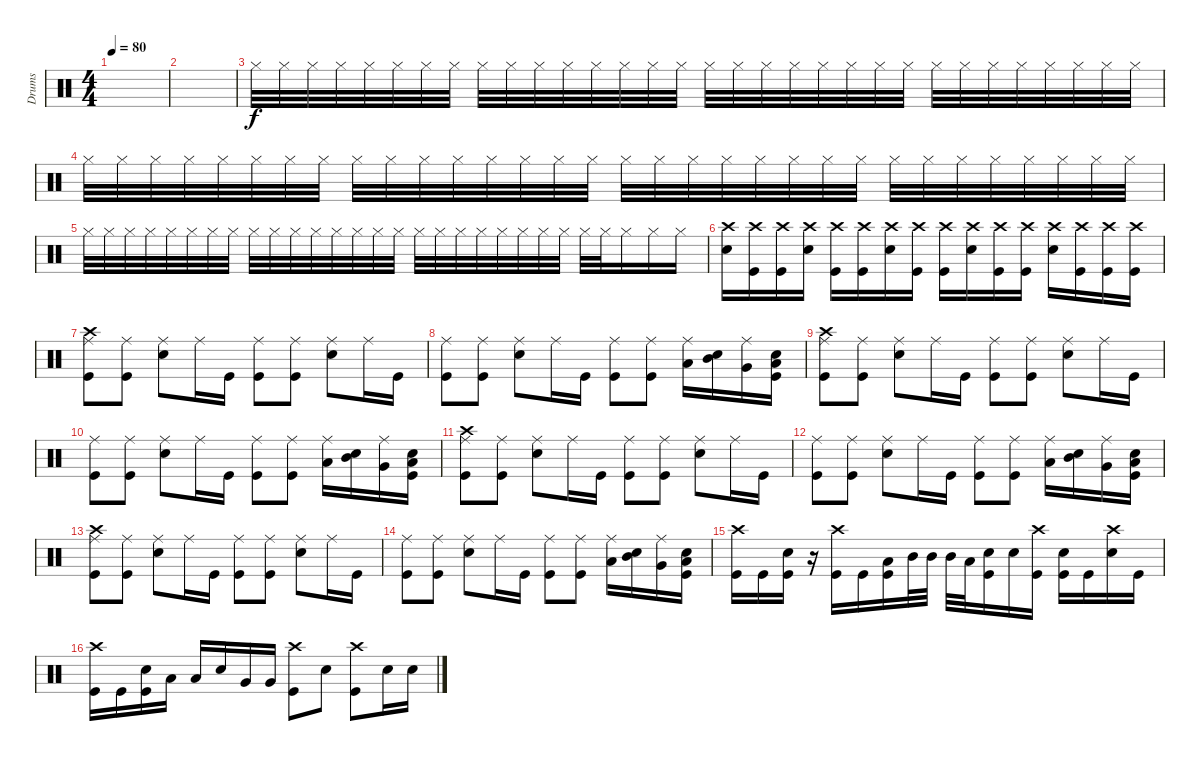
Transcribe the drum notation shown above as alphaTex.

\track ("Drums" "Drums") {instrument percussion}
\staff {score}
\articulation defaults
\ts (4 4)
\tempo 80
\clef neutral
\ks c
|
|
"Hi-Hat (closed)".32 "Hi-Hat (closed)".32 "Hi-Hat (closed)".32 "Hi-Hat (closed)".32 "Hi-Hat (closed)".32 "Hi-Hat (closed)".32 "Hi-Hat (closed)".32 "Hi-Hat (closed)".32 "Hi-Hat (closed)".32 "Hi-Hat (closed)".32 "Hi-Hat (closed)".32 "Hi-Hat (closed)".32 "Hi-Hat (closed)".32 "Hi-Hat (closed)".32 "Hi-Hat (closed)".32 "Hi-Hat (closed)".32 "Hi-Hat (closed)".32 "Hi-Hat (closed)".32 "Hi-Hat (closed)".32 "Hi-Hat (closed)".32 "Hi-Hat (closed)".32 "Hi-Hat (closed)".32 "Hi-Hat (closed)".32 "Hi-Hat (closed)".32 "Hi-Hat (closed)".32 "Hi-Hat (closed)".32 "Hi-Hat (closed)".32 "Hi-Hat (closed)".32 "Hi-Hat (closed)".32 "Hi-Hat (closed)".32 "Hi-Hat (closed)".32 "Hi-Hat (closed)".32 |
"Hi-Hat (closed)".32 "Hi-Hat (closed)".32 "Hi-Hat (closed)".32 "Hi-Hat (closed)".32 "Hi-Hat (closed)".32 "Hi-Hat (closed)".32 "Hi-Hat (closed)".32 "Hi-Hat (closed)".32 "Hi-Hat (closed)".32 "Hi-Hat (closed)".32 "Hi-Hat (closed)".32 "Hi-Hat (closed)".32 "Hi-Hat (closed)".32 "Hi-Hat (closed)".32 "Hi-Hat (closed)".32 "Hi-Hat (closed)".32 "Hi-Hat (closed)".32 "Hi-Hat (closed)".32 "Hi-Hat (closed)".32 "Hi-Hat (closed)".32 "Hi-Hat (closed)".32 "Hi-Hat (closed)".32 "Hi-Hat (closed)".32 "Hi-Hat (closed)".32 "Hi-Hat (closed)".32 "Hi-Hat (closed)".32 "Hi-Hat (closed)".32 "Hi-Hat (closed)".32 "Hi-Hat (closed)".32 "Hi-Hat (closed)".32 "Hi-Hat (closed)".32 "Hi-Hat (closed)".32 |
"Hi-Hat (closed)".32 "Hi-Hat (closed)".32 "Hi-Hat (closed)".32 "Hi-Hat (closed)".32 "Hi-Hat (closed)".32 "Hi-Hat (closed)".32 "Hi-Hat (closed)".32 "Hi-Hat (closed)".32 "Hi-Hat (closed)".32 "Hi-Hat (closed)".32 "Hi-Hat (closed)".32 "Hi-Hat (closed)".32 "Hi-Hat (closed)".32 "Hi-Hat (closed)".32 "Hi-Hat (closed)".32 "Hi-Hat (closed)".32 "Hi-Hat (closed)".32 "Hi-Hat (closed)".32 "Hi-Hat (closed)".32 "Hi-Hat (closed)".32 "Hi-Hat (closed)".32 "Hi-Hat (closed)".32 "Hi-Hat (closed)".32 "Hi-Hat (closed)".32 "Hi-Hat (closed)".32 "Hi-Hat (closed)".32 "Hi-Hat (closed)".16 "Hi-Hat (closed)".16 "Hi-Hat (closed)".16 |
("Crash high (hit)" "Snare (hit) 2").16 ("Crash high (hit)" "Kick (hit)").16 ("Crash high (hit)" "Kick (hit)").16 ("Crash high (hit)" "Snare (hit) 2").16 ("Crash high (hit)" "Kick (hit)").16 ("Crash high (hit)" "Kick (hit)").16 ("Crash high (hit)" "Snare (hit) 2").16 ("Crash high (hit)" "Kick (hit)").16 ("Crash high (hit)" "Kick (hit)").16 ("Crash high (hit)" "Snare (hit) 2").16 ("Crash high (hit)" "Kick (hit)").16 ("Crash high (hit)" "Kick (hit)").16 ("Crash high (hit)" "Snare (hit) 2").16 ("Crash high (hit)" "Kick (hit)").16 ("Crash high (hit)" "Kick (hit)").16 ("Crash high (hit)" "Kick (hit)").16 |
("Ride (middle)" "Kick (hit)" "Crash high (hit)").8 ("Ride (middle)" "Kick (hit)").8 ("Ride (middle)" "Snare (hit) 2").8 "Ride (middle)".16 "Kick (hit)".16 ("Ride (middle)" "Kick (hit)").8 ("Ride (middle)" "Kick (hit)").8 ("Ride (middle)" "Snare (hit) 2").8 "Ride (middle)".16 "Kick (hit)".16 |
("Ride (middle)" "Kick (hit)").8 ("Ride (middle)" "Kick (hit)").8 ("Ride (middle)" "Snare (hit) 2").8 "Ride (middle)".16 "Kick (hit)".16 ("Ride (middle)" "Kick (hit)").8 ("Ride (middle)" "Kick (hit)").8 ("Low Tom (hit)" "Ride (middle)").16 ("Mid Tom (hit)" "Snare (hit) 2").16 ("Very Low Tom (hit)" "Ride (middle)").16 ("Low Floor Tom (hit)" "Kick (hit)" "Snare (hit) 2").16 |
("Ride (middle)" "Kick (hit)" "Crash high (hit)").8 ("Ride (middle)" "Kick (hit)").8 ("Ride (middle)" "Snare (hit) 2").8 "Ride (middle)".16 "Kick (hit)".16 ("Ride (middle)" "Kick (hit)").8 ("Ride (middle)" "Kick (hit)").8 ("Ride (middle)" "Snare (hit) 2").8 "Ride (middle)".16 "Kick (hit)".16 |
("Ride (middle)" "Kick (hit)").8 ("Ride (middle)" "Kick (hit)").8 ("Ride (middle)" "Snare (hit) 2").8 "Ride (middle)".16 "Kick (hit)".16 ("Ride (middle)" "Kick (hit)").8 ("Ride (middle)" "Kick (hit)").8 ("Low Tom (hit)" "Ride (middle)").16 ("Mid Tom (hit)" "Snare (hit) 2").16 ("Very Low Tom (hit)" "Ride (middle)").16 ("Low Floor Tom (hit)" "Kick (hit)" "Snare (hit) 2").16 |
("Ride (middle)" "Kick (hit)" "Crash high (hit)").8 ("Ride (middle)" "Kick (hit)").8 ("Ride (middle)" "Snare (hit) 2").8 "Ride (middle)".16 "Kick (hit)".16 ("Ride (middle)" "Kick (hit)").8 ("Ride (middle)" "Kick (hit)").8 ("Ride (middle)" "Snare (hit) 2").8 "Ride (middle)".16 "Kick (hit)".16 |
("Ride (middle)" "Kick (hit)").8 ("Ride (middle)" "Kick (hit)").8 ("Ride (middle)" "Snare (hit) 2").8 "Ride (middle)".16 "Kick (hit)".16 ("Ride (middle)" "Kick (hit)").8 ("Ride (middle)" "Kick (hit)").8 ("Low Tom (hit)" "Ride (middle)").16 ("Mid Tom (hit)" "Snare (hit) 2").16 ("Very Low Tom (hit)" "Ride (middle)").16 ("Low Floor Tom (hit)" "Kick (hit)" "Snare (hit) 2").16 |
("Ride (middle)" "Kick (hit)" "Crash high (hit)").8 ("Ride (middle)" "Kick (hit)").8 ("Ride (middle)" "Snare (hit) 2").8 "Ride (middle)".16 "Kick (hit)".16 ("Ride (middle)" "Kick (hit)").8 ("Ride (middle)" "Kick (hit)").8 ("Ride (middle)" "Snare (hit) 2").8 "Ride (middle)".16 "Kick (hit)".16 |
("Ride (middle)" "Kick (hit)").8 ("Ride (middle)" "Kick (hit)").8 ("Ride (middle)" "Snare (hit) 2").8 "Ride (middle)".16 "Kick (hit)".16 ("Ride (middle)" "Kick (hit)").8 ("Ride (middle)" "Kick (hit)").8 ("Low Tom (hit)" "Ride (middle)").16 ("Mid Tom (hit)" "Snare (hit) 2").16 ("Very Low Tom (hit)" "Ride (middle)").16 ("Low Floor Tom (hit)" "Kick (hit)" "Snare (hit) 2").16 |
("Crash high (hit)" "Kick (hit)").16 "Kick (hit)".16 ("Kick (hit)" "Snare (hit) 2").16 r.16 ("Crash high (hit)" "Kick (hit)").16 "Kick (hit)".16 ("Kick (hit)" "Low Tom (hit)").16 "Mid Tom (hit)".32 "Mid Tom (hit)".32 "Mid Tom (hit)".32 "Low Tom (hit)".32 ("Kick (hit)" "Snare (hit) 2").16 "Snare (hit) 2".16 ("Crash high (hit)" "Kick (hit)").16 ("Kick (hit)" "Snare (hit) 2").16 "Kick (hit)".16 ("Snare (hit) 2" "Crash high (hit)").16 "Kick (hit)".16 |
("Crash high (hit)" "Kick (hit)").16 "Kick (hit)".16 ("Kick (hit)" "Snare (hit) 2").16 "Low Tom (hit)".16 "Low Tom (hit)".16 "Snare (hit) 2".16 "Very Low Tom (hit)".16 "Very Low Tom (hit)".16 ("Kick (hit)" "Crash high (hit)").8 "Snare (hit) 2".8 ("Kick (hit)" "Crash high (hit)").8 "Snare (hit) 2".16 "Snare (hit) 2".16
